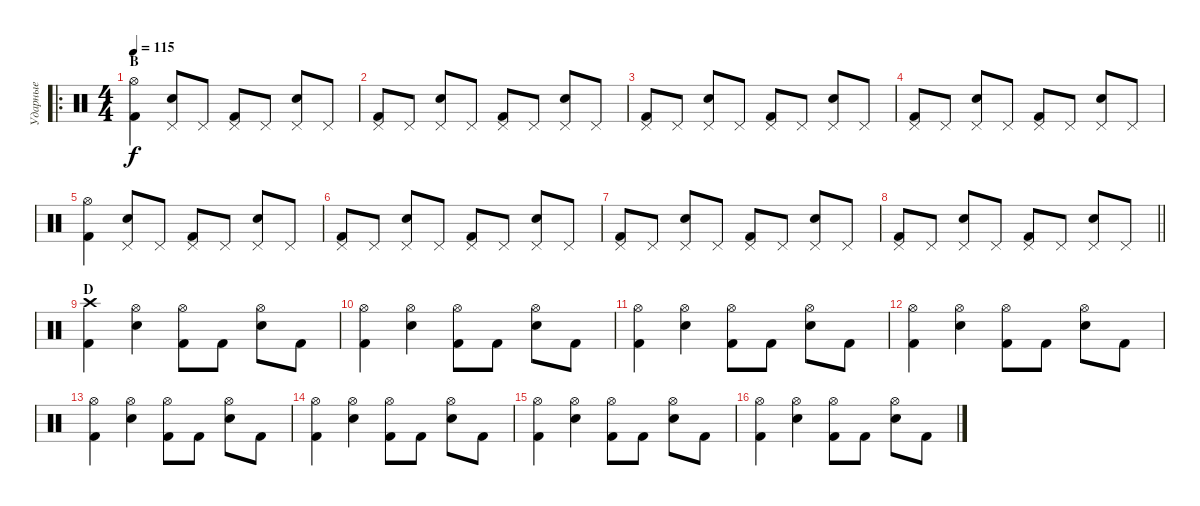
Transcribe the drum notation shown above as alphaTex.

\track ("Ударные" "Ударные") {instrument percussion}
\staff {score}
\articulation defaults
\ro
\ts (4 4)
\section ("" "B")
\tempo 115
\clef neutral
\ks c
("Hi-Hat (open)" "Kick (hit) 2").4{dy f} ("Pedal Hi-Hat (hit)" "Electric Snare (hit)").8 "Pedal Hi-Hat (hit)".8 ("Pedal Hi-Hat (hit)" "Kick (hit) 2").8 "Pedal Hi-Hat (hit)".8 ("Pedal Hi-Hat (hit)" "Electric Snare (hit)").8 "Pedal Hi-Hat (hit)".8 |
("Pedal Hi-Hat (hit)" "Kick (hit) 2").8 "Pedal Hi-Hat (hit)".8 ("Pedal Hi-Hat (hit)" "Electric Snare (hit)").8 "Pedal Hi-Hat (hit)".8 ("Pedal Hi-Hat (hit)" "Kick (hit) 2").8 "Pedal Hi-Hat (hit)".8 ("Pedal Hi-Hat (hit)" "Electric Snare (hit)").8 "Pedal Hi-Hat (hit)".8 |
("Pedal Hi-Hat (hit)" "Kick (hit) 2").8 "Pedal Hi-Hat (hit)".8 ("Pedal Hi-Hat (hit)" "Electric Snare (hit)").8 "Pedal Hi-Hat (hit)".8 ("Pedal Hi-Hat (hit)" "Kick (hit) 2").8 "Pedal Hi-Hat (hit)".8 ("Pedal Hi-Hat (hit)" "Electric Snare (hit)").8 "Pedal Hi-Hat (hit)".8 |
("Pedal Hi-Hat (hit)" "Kick (hit) 2").8 "Pedal Hi-Hat (hit)".8 ("Pedal Hi-Hat (hit)" "Electric Snare (hit)").8 "Pedal Hi-Hat (hit)".8 ("Pedal Hi-Hat (hit)" "Kick (hit) 2").8 "Pedal Hi-Hat (hit)".8 ("Pedal Hi-Hat (hit)" "Electric Snare (hit)").8 "Pedal Hi-Hat (hit)".8 |
("Hi-Hat (open)" "Kick (hit) 2").4 ("Pedal Hi-Hat (hit)" "Electric Snare (hit)").8 "Pedal Hi-Hat (hit)".8 ("Pedal Hi-Hat (hit)" "Kick (hit) 2").8 "Pedal Hi-Hat (hit)".8 ("Pedal Hi-Hat (hit)" "Electric Snare (hit)").8 "Pedal Hi-Hat (hit)".8 |
("Pedal Hi-Hat (hit)" "Kick (hit) 2").8 "Pedal Hi-Hat (hit)".8 ("Pedal Hi-Hat (hit)" "Electric Snare (hit)").8 "Pedal Hi-Hat (hit)".8 ("Pedal Hi-Hat (hit)" "Kick (hit) 2").8 "Pedal Hi-Hat (hit)".8 ("Pedal Hi-Hat (hit)" "Electric Snare (hit)").8 "Pedal Hi-Hat (hit)".8 |
("Pedal Hi-Hat (hit)" "Kick (hit) 2").8 "Pedal Hi-Hat (hit)".8 ("Pedal Hi-Hat (hit)" "Electric Snare (hit)").8 "Pedal Hi-Hat (hit)".8 ("Pedal Hi-Hat (hit)" "Kick (hit) 2").8 "Pedal Hi-Hat (hit)".8 ("Pedal Hi-Hat (hit)" "Electric Snare (hit)").8 "Pedal Hi-Hat (hit)".8 |
\barLineRight lightlight
("Pedal Hi-Hat (hit)" "Kick (hit) 2").8 "Pedal Hi-Hat (hit)".8 ("Pedal Hi-Hat (hit)" "Electric Snare (hit)").8 "Pedal Hi-Hat (hit)".8 ("Pedal Hi-Hat (hit)" "Kick (hit) 2").8 "Pedal Hi-Hat (hit)".8 ("Pedal Hi-Hat (hit)" "Electric Snare (hit)").8 "Pedal Hi-Hat (hit)".8 |
\section ("" "D")
("Kick (hit) 2" "Crash high (hit)").4 ("Electric Snare (hit)" "Hi-Hat (open)").4 ("Kick (hit) 2" "Hi-Hat (open)").8 "Kick (hit) 2".8 ("Electric Snare (hit)" "Hi-Hat (open)").8 "Kick (hit) 2".8 |
("Kick (hit) 2" "Hi-Hat (open)").4 ("Electric Snare (hit)" "Hi-Hat (open)").4 ("Kick (hit) 2" "Hi-Hat (open)").8 "Kick (hit) 2".8 ("Electric Snare (hit)" "Hi-Hat (open)").8 "Kick (hit) 2".8 |
("Kick (hit) 2" "Hi-Hat (open)").4 ("Electric Snare (hit)" "Hi-Hat (open)").4 ("Kick (hit) 2" "Hi-Hat (open)").8 "Kick (hit) 2".8 ("Electric Snare (hit)" "Hi-Hat (open)").8 "Kick (hit) 2".8 |
("Kick (hit) 2" "Hi-Hat (open)").4 ("Electric Snare (hit)" "Hi-Hat (open)").4 ("Kick (hit) 2" "Hi-Hat (open)").8 "Kick (hit) 2".8 ("Electric Snare (hit)" "Hi-Hat (open)").8 "Kick (hit) 2".8 |
("Kick (hit) 2" "Hi-Hat (open)").4 ("Electric Snare (hit)" "Hi-Hat (open)").4 ("Kick (hit) 2" "Hi-Hat (open)").8 "Kick (hit) 2".8 ("Electric Snare (hit)" "Hi-Hat (open)").8 "Kick (hit) 2".8 |
("Kick (hit) 2" "Hi-Hat (open)").4 ("Electric Snare (hit)" "Hi-Hat (open)").4 ("Kick (hit) 2" "Hi-Hat (open)").8 "Kick (hit) 2".8 ("Electric Snare (hit)" "Hi-Hat (open)").8 "Kick (hit) 2".8 |
("Kick (hit) 2" "Hi-Hat (open)").4 ("Electric Snare (hit)" "Hi-Hat (open)").4 ("Kick (hit) 2" "Hi-Hat (open)").8 "Kick (hit) 2".8 ("Electric Snare (hit)" "Hi-Hat (open)").8 "Kick (hit) 2".8 |
("Kick (hit) 2" "Hi-Hat (open)").4 ("Electric Snare (hit)" "Hi-Hat (open)").4 ("Kick (hit) 2" "Hi-Hat (open)").8 "Kick (hit) 2".8 ("Electric Snare (hit)" "Hi-Hat (open)").8 "Kick (hit) 2".8
